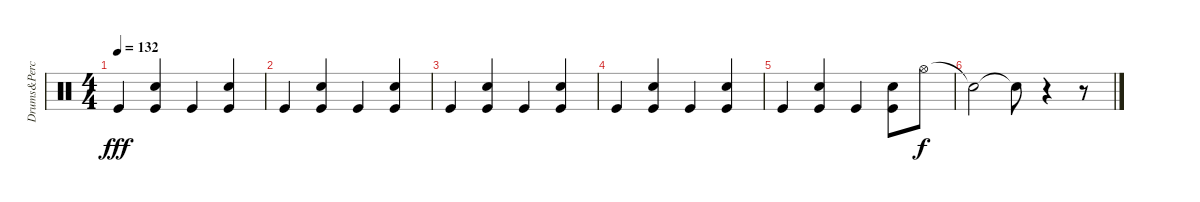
\track ("Drums&Perc." "Drums&Perc") {instrument percussion}
\staff {score}
\articulation defaults
\ts (4 4)
\tempo 132
\clef neutral
\ks c "Kick (hit)".4{dy fff volume 13}
("Hand Clap (hit)" "Kick (hit)").4{volume 12} "Kick (hit)".4{volume 11} ("Hand Clap (hit)" "Kick (hit)").4{volume 11} |
"Kick (hit)".4{volume 10} ("Hand Clap (hit)" "Kick (hit)").4{volume 9} "Kick (hit)".4{volume 9} ("Hand Clap (hit)" "Kick (hit)").4{volume 8} |
"Kick (hit)".4{volume 8} ("Hand Clap (hit)" "Kick (hit)").4{volume 7} "Kick (hit)".4{volume 6} ("Hand Clap (hit)" "Kick (hit)").4{volume 6} |
"Kick (hit)".4{volume 5} ("Hand Clap (hit)" "Kick (hit)").4{volume 4} "Kick (hit)".4{volume 4} ("Hand Clap (hit)" "Kick (hit)").4{volume 3} |
"Kick (hit)".4{volume 3} ("Hand Clap (hit)" "Kick (hit)").4{volume 2} "Kick (hit)".4{volume 1} ("Hand Clap (hit)" "Kick (hit)").8{volume 1} "Hi-Hat (open)".8{dy f volume 0} |
"Snare (hit)"{t}.2 "Snare (hit)"{t}.8 r.4 r.8
